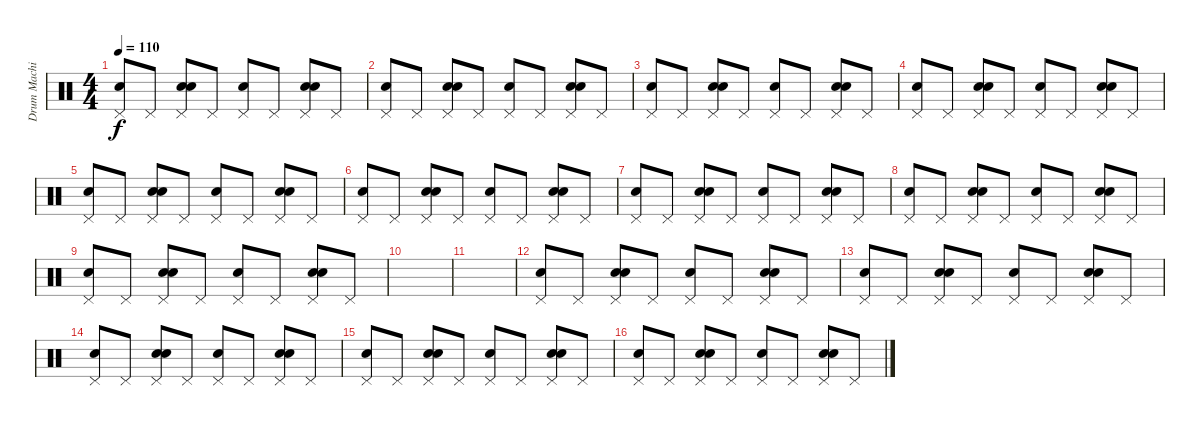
\track ("Drum Machine" "Drum Machi") {instrument percussion}
\staff {score}
\articulation defaults
\ts (4 4)
\tempo 110
\clef neutral
\ks c
("Pedal Hi-Hat (hit)" "Snare (hit) 2").8{dy f} "Pedal Hi-Hat (hit)".8 ("Pedal Hi-Hat (hit)" "Snare (hit) 2" "Hand Clap (hit)").8 "Pedal Hi-Hat (hit)".8 ("Pedal Hi-Hat (hit)" "Snare (hit) 2").8 "Pedal Hi-Hat (hit)".8 ("Pedal Hi-Hat (hit)" "Snare (hit) 2" "Hand Clap (hit)").8 "Pedal Hi-Hat (hit)".8 |
("Pedal Hi-Hat (hit)" "Snare (hit) 2").8 "Pedal Hi-Hat (hit)".8 ("Pedal Hi-Hat (hit)" "Snare (hit) 2" "Hand Clap (hit)").8 "Pedal Hi-Hat (hit)".8 ("Pedal Hi-Hat (hit)" "Snare (hit) 2").8 "Pedal Hi-Hat (hit)".8 ("Pedal Hi-Hat (hit)" "Snare (hit) 2" "Hand Clap (hit)").8 "Pedal Hi-Hat (hit)".8 |
("Pedal Hi-Hat (hit)" "Snare (hit) 2").8 "Pedal Hi-Hat (hit)".8 ("Pedal Hi-Hat (hit)" "Snare (hit) 2" "Hand Clap (hit)").8 "Pedal Hi-Hat (hit)".8 ("Pedal Hi-Hat (hit)" "Snare (hit) 2").8 "Pedal Hi-Hat (hit)".8 ("Pedal Hi-Hat (hit)" "Snare (hit) 2" "Hand Clap (hit)").8 "Pedal Hi-Hat (hit)".8 |
("Pedal Hi-Hat (hit)" "Snare (hit) 2").8 "Pedal Hi-Hat (hit)".8 ("Pedal Hi-Hat (hit)" "Snare (hit) 2" "Hand Clap (hit)").8 "Pedal Hi-Hat (hit)".8 ("Pedal Hi-Hat (hit)" "Snare (hit) 2").8 "Pedal Hi-Hat (hit)".8 ("Pedal Hi-Hat (hit)" "Snare (hit) 2" "Hand Clap (hit)").8 "Pedal Hi-Hat (hit)".8 |
("Pedal Hi-Hat (hit)" "Snare (hit) 2").8 "Pedal Hi-Hat (hit)".8 ("Pedal Hi-Hat (hit)" "Snare (hit) 2" "Hand Clap (hit)").8 "Pedal Hi-Hat (hit)".8 ("Pedal Hi-Hat (hit)" "Snare (hit) 2").8 "Pedal Hi-Hat (hit)".8 ("Pedal Hi-Hat (hit)" "Snare (hit) 2" "Hand Clap (hit)").8 "Pedal Hi-Hat (hit)".8 |
("Pedal Hi-Hat (hit)" "Snare (hit) 2").8 "Pedal Hi-Hat (hit)".8 ("Pedal Hi-Hat (hit)" "Snare (hit) 2" "Hand Clap (hit)").8 "Pedal Hi-Hat (hit)".8 ("Pedal Hi-Hat (hit)" "Snare (hit) 2").8 "Pedal Hi-Hat (hit)".8 ("Pedal Hi-Hat (hit)" "Snare (hit) 2" "Hand Clap (hit)").8 "Pedal Hi-Hat (hit)".8 |
("Pedal Hi-Hat (hit)" "Snare (hit) 2").8 "Pedal Hi-Hat (hit)".8 ("Pedal Hi-Hat (hit)" "Snare (hit) 2" "Hand Clap (hit)").8 "Pedal Hi-Hat (hit)".8 ("Pedal Hi-Hat (hit)" "Snare (hit) 2").8 "Pedal Hi-Hat (hit)".8 ("Pedal Hi-Hat (hit)" "Snare (hit) 2" "Hand Clap (hit)").8 "Pedal Hi-Hat (hit)".8 |
("Pedal Hi-Hat (hit)" "Snare (hit) 2").8 "Pedal Hi-Hat (hit)".8 ("Pedal Hi-Hat (hit)" "Snare (hit) 2" "Hand Clap (hit)").8 "Pedal Hi-Hat (hit)".8 ("Pedal Hi-Hat (hit)" "Snare (hit) 2").8 "Pedal Hi-Hat (hit)".8 ("Pedal Hi-Hat (hit)" "Snare (hit) 2" "Hand Clap (hit)").8 "Pedal Hi-Hat (hit)".8 |
("Pedal Hi-Hat (hit)" "Snare (hit) 2").8 "Pedal Hi-Hat (hit)".8 ("Pedal Hi-Hat (hit)" "Snare (hit) 2" "Hand Clap (hit)").8 "Pedal Hi-Hat (hit)".8 ("Pedal Hi-Hat (hit)" "Snare (hit) 2").8 "Pedal Hi-Hat (hit)".8 ("Pedal Hi-Hat (hit)" "Snare (hit) 2" "Hand Clap (hit)").8 "Pedal Hi-Hat (hit)".8 |
|
|
("Pedal Hi-Hat (hit)" "Snare (hit) 2").8 "Pedal Hi-Hat (hit)".8 ("Pedal Hi-Hat (hit)" "Snare (hit) 2" "Hand Clap (hit)").8 "Pedal Hi-Hat (hit)".8 ("Pedal Hi-Hat (hit)" "Snare (hit) 2").8 "Pedal Hi-Hat (hit)".8 ("Pedal Hi-Hat (hit)" "Snare (hit) 2" "Hand Clap (hit)").8 "Pedal Hi-Hat (hit)".8 |
("Pedal Hi-Hat (hit)" "Snare (hit) 2").8 "Pedal Hi-Hat (hit)".8 ("Pedal Hi-Hat (hit)" "Snare (hit) 2" "Hand Clap (hit)").8 "Pedal Hi-Hat (hit)".8 ("Pedal Hi-Hat (hit)" "Snare (hit) 2").8 "Pedal Hi-Hat (hit)".8 ("Pedal Hi-Hat (hit)" "Snare (hit) 2" "Hand Clap (hit)").8 "Pedal Hi-Hat (hit)".8 |
("Pedal Hi-Hat (hit)" "Snare (hit) 2").8 "Pedal Hi-Hat (hit)".8 ("Pedal Hi-Hat (hit)" "Snare (hit) 2" "Hand Clap (hit)").8 "Pedal Hi-Hat (hit)".8 ("Pedal Hi-Hat (hit)" "Snare (hit) 2").8 "Pedal Hi-Hat (hit)".8 ("Pedal Hi-Hat (hit)" "Snare (hit) 2" "Hand Clap (hit)").8 "Pedal Hi-Hat (hit)".8 |
("Pedal Hi-Hat (hit)" "Snare (hit) 2").8 "Pedal Hi-Hat (hit)".8 ("Pedal Hi-Hat (hit)" "Snare (hit) 2" "Hand Clap (hit)").8 "Pedal Hi-Hat (hit)".8 ("Pedal Hi-Hat (hit)" "Snare (hit) 2").8 "Pedal Hi-Hat (hit)".8 ("Pedal Hi-Hat (hit)" "Snare (hit) 2" "Hand Clap (hit)").8 "Pedal Hi-Hat (hit)".8 |
("Pedal Hi-Hat (hit)" "Snare (hit) 2").8 "Pedal Hi-Hat (hit)".8 ("Pedal Hi-Hat (hit)" "Snare (hit) 2" "Hand Clap (hit)").8 "Pedal Hi-Hat (hit)".8 ("Pedal Hi-Hat (hit)" "Snare (hit) 2").8 "Pedal Hi-Hat (hit)".8 ("Pedal Hi-Hat (hit)" "Snare (hit) 2" "Hand Clap (hit)").8 "Pedal Hi-Hat (hit)".8
